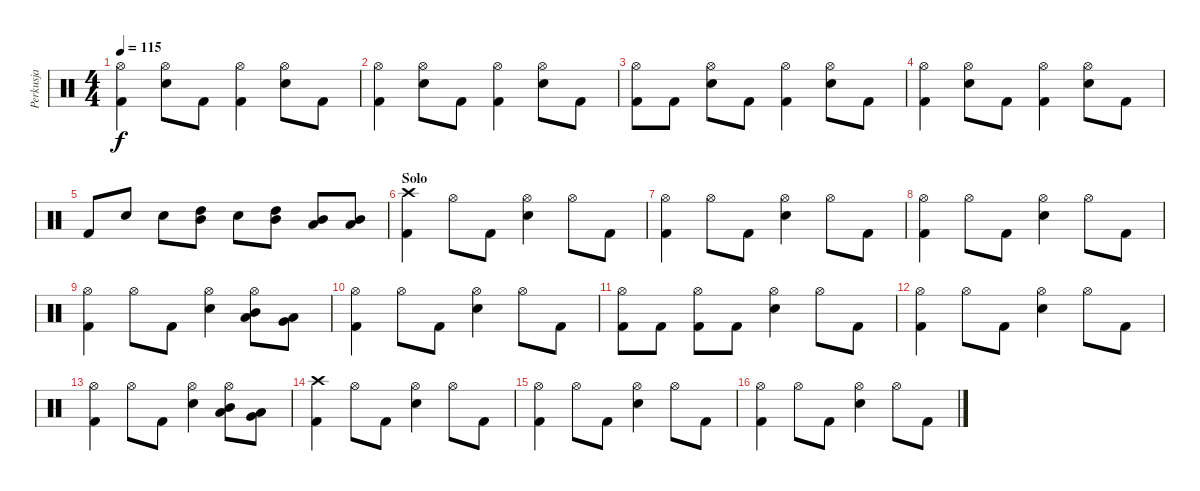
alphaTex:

\track ("Perkusja" "Perkusja") {instrument percussion}
\staff {score}
\articulation defaults
\ts (4 4)
\tempo 115
\clef neutral
\ks c
("Hi-Hat (open)" "Kick (hit) 2").4{dy f} ("Hi-Hat (open)" "Snare (hit) 2").8 "Kick (hit) 2".8 ("Hi-Hat (open)" "Kick (hit) 2").4 ("Hi-Hat (open)" "Snare (hit) 2").8 "Kick (hit) 2".8 |
("Hi-Hat (open)" "Kick (hit) 2").4 ("Hi-Hat (open)" "Snare (hit) 2").8 "Kick (hit) 2".8 ("Hi-Hat (open)" "Kick (hit) 2").4 ("Hi-Hat (open)" "Snare (hit) 2").8 "Kick (hit) 2".8 |
("Hi-Hat (open)" "Kick (hit) 2").8 "Kick (hit) 2".8 ("Hi-Hat (open)" "Snare (hit) 2").8 "Kick (hit) 2".8 ("Hi-Hat (open)" "Kick (hit) 2").4 ("Hi-Hat (open)" "Snare (hit) 2").8 "Kick (hit) 2".8 |
("Hi-Hat (open)" "Kick (hit) 2").4 ("Hi-Hat (open)" "Snare (hit) 2").8 "Kick (hit) 2".8 ("Hi-Hat (open)" "Kick (hit) 2").4 ("Hi-Hat (open)" "Snare (hit) 2").8 "Kick (hit) 2".8 |
"Kick (hit) 2".8 "Snare (hit) 2".8 "Snare (hit) 2".8 ("Mid Tom (hit)" "High Tom (hit)").8 "Snare (hit) 2".8 ("Mid Tom (hit)" "High Tom (hit)").8 ("Low Tom (hit)" "Mid Tom (hit)").8 ("Low Tom (hit)" "Mid Tom (hit)").8 |
\section ("" "Solo")
("Crash high (hit)" "Kick (hit) 2").4 "Hi-Hat (open)".8 "Kick (hit) 2".8 ("Hi-Hat (open)" "Snare (hit) 2").4 "Hi-Hat (open)".8 "Kick (hit) 2".8 |
("Hi-Hat (open)" "Kick (hit) 2").4 "Hi-Hat (open)".8 "Kick (hit) 2".8 ("Hi-Hat (open)" "Snare (hit) 2").4 "Hi-Hat (open)".8 "Kick (hit) 2".8 |
("Hi-Hat (open)" "Kick (hit) 2").4 "Hi-Hat (open)".8 "Kick (hit) 2".8 ("Hi-Hat (open)" "Snare (hit) 2").4 "Hi-Hat (open)".8 "Kick (hit) 2".8 |
("Hi-Hat (open)" "Kick (hit) 2").4 "Hi-Hat (open)".8 "Kick (hit) 2".8 ("Hi-Hat (open)" "Snare (hit) 2").4 ("Hi-Hat (open)" "Mid Tom (hit)" "Low Tom (hit)").8 ("Low Tom (hit)" "Very Low Tom (hit)").8 |
("Hi-Hat (open)" "Kick (hit) 2").4 "Hi-Hat (open)".8 "Kick (hit) 2".8 ("Hi-Hat (open)" "Snare (hit) 2").4 "Hi-Hat (open)".8 "Kick (hit) 2".8 |
("Hi-Hat (open)" "Kick (hit) 2").8 "Kick (hit) 2".8 ("Hi-Hat (open)" "Kick (hit) 2").8 "Kick (hit) 2".8 ("Hi-Hat (open)" "Snare (hit) 2").4 "Hi-Hat (open)".8 "Kick (hit) 2".8 |
("Hi-Hat (open)" "Kick (hit) 2").4 "Hi-Hat (open)".8 "Kick (hit) 2".8 ("Hi-Hat (open)" "Snare (hit) 2").4 "Hi-Hat (open)".8 "Kick (hit) 2".8 |
("Hi-Hat (open)" "Kick (hit) 2").4 "Hi-Hat (open)".8 "Kick (hit) 2".8 ("Hi-Hat (open)" "Snare (hit) 2").4 ("Hi-Hat (open)" "Mid Tom (hit)" "Low Tom (hit)").8 ("Low Tom (hit)" "Very Low Tom (hit)").8 |
("Crash high (hit)" "Kick (hit) 2").4 "Hi-Hat (open)".8 "Kick (hit) 2".8 ("Hi-Hat (open)" "Snare (hit) 2").4 "Hi-Hat (open)".8 "Kick (hit) 2".8 |
("Hi-Hat (open)" "Kick (hit) 2").4 "Hi-Hat (open)".8 "Kick (hit) 2".8 ("Hi-Hat (open)" "Snare (hit) 2").4 "Hi-Hat (open)".8 "Kick (hit) 2".8 |
("Hi-Hat (open)" "Kick (hit) 2").4 "Hi-Hat (open)".8 "Kick (hit) 2".8 ("Hi-Hat (open)" "Snare (hit) 2").4 "Hi-Hat (open)".8 "Kick (hit) 2".8
